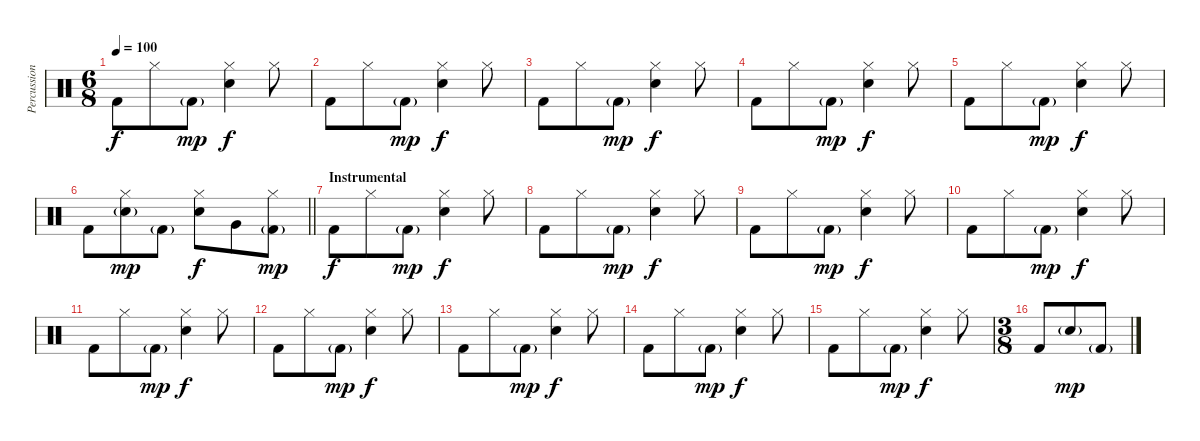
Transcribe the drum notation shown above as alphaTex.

\track ("Percussion" "Percussion") {instrument percussion}
\staff {score}
\articulation defaults
\ts (6 8)
\tempo 100
\clef neutral
\ks c "Kick (hit) 2".8{dy f} "Hi-Hat (closed)".8 "Kick (hit) 2"{g}.8{dy mp}
("Hi-Hat (closed)" "Snare (hit) 2").4{dy f} "Hi-Hat (closed)".8 |
"Kick (hit) 2".8 "Hi-Hat (closed)".8 "Kick (hit) 2"{g}.8{dy mp} ("Hi-Hat (closed)" "Snare (hit) 2").4{dy f} "Hi-Hat (closed)".8 |
"Kick (hit) 2".8 "Hi-Hat (closed)".8 "Kick (hit) 2"{g}.8{dy mp} ("Hi-Hat (closed)" "Snare (hit) 2").4{dy f} "Hi-Hat (closed)".8 |
"Kick (hit) 2".8 "Hi-Hat (closed)".8 "Kick (hit) 2"{g}.8{dy mp} ("Hi-Hat (closed)" "Snare (hit) 2").4{dy f} "Hi-Hat (closed)".8 |
"Kick (hit) 2".8 "Hi-Hat (closed)".8 "Kick (hit) 2"{g}.8{dy mp} ("Hi-Hat (closed)" "Snare (hit) 2").4{dy f} "Hi-Hat (closed)".8 |
\barLineRight lightlight "Kick (hit) 2".8
("Hi-Hat (closed)" "Snare (hit) 2"{g}).8{dy mp} "Kick (hit) 2"{g}.8 ("Hi-Hat (closed)" "Snare (hit) 2").8{dy f} "Very Low Tom (hit)".8 ("Hi-Hat (closed)" "Kick (hit) 2"{g}).8{dy mp} |
\section ("" "Instrumental")
"Kick (hit) 2".8{dy f} "Hi-Hat (closed)".8 "Kick (hit) 2"{g}.8{dy mp} ("Hi-Hat (closed)" "Snare (hit) 2").4{dy f} "Hi-Hat (closed)".8 |
"Kick (hit) 2".8 "Hi-Hat (closed)".8 "Kick (hit) 2"{g}.8{dy mp} ("Hi-Hat (closed)" "Snare (hit) 2").4{dy f} "Hi-Hat (closed)".8 |
"Kick (hit) 2".8 "Hi-Hat (closed)".8 "Kick (hit) 2"{g}.8{dy mp} ("Hi-Hat (closed)" "Snare (hit) 2").4{dy f} "Hi-Hat (closed)".8 |
"Kick (hit) 2".8 "Hi-Hat (closed)".8 "Kick (hit) 2"{g}.8{dy mp} ("Hi-Hat (closed)" "Snare (hit) 2").4{dy f} "Hi-Hat (closed)".8 |
"Kick (hit) 2".8 "Hi-Hat (closed)".8 "Kick (hit) 2"{g}.8{dy mp} ("Hi-Hat (closed)" "Snare (hit) 2").4{dy f} "Hi-Hat (closed)".8 |
"Kick (hit) 2".8 "Hi-Hat (closed)".8 "Kick (hit) 2"{g}.8{dy mp} ("Hi-Hat (closed)" "Snare (hit) 2").4{dy f} "Hi-Hat (closed)".8 |
"Kick (hit) 2".8 "Hi-Hat (closed)".8 "Kick (hit) 2"{g}.8{dy mp} ("Hi-Hat (closed)" "Snare (hit) 2").4{dy f} "Hi-Hat (closed)".8 |
"Kick (hit) 2".8 "Hi-Hat (closed)".8 "Kick (hit) 2"{g}.8{dy mp} ("Hi-Hat (closed)" "Snare (hit) 2").4{dy f} "Hi-Hat (closed)".8 |
"Kick (hit) 2".8 "Hi-Hat (closed)".8 "Kick (hit) 2"{g}.8{dy mp} ("Hi-Hat (closed)" "Snare (hit) 2").4{dy f} "Hi-Hat (closed)".8 |
\ts (3 8)
"Kick (hit) 2".8 "Snare (hit) 2"{g}.8{dy mp} "Kick (hit) 2"{g}.8
